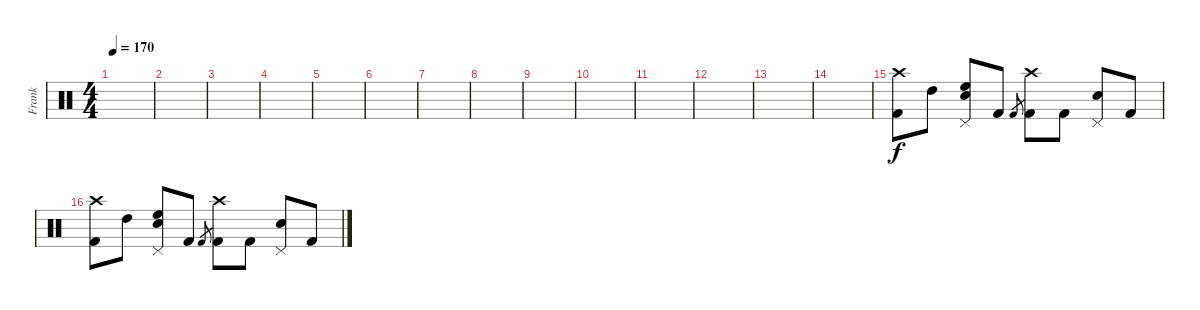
\track ("Frank" "Frank") {instrument percussion}
\staff {score}
\articulation defaults
\ts (4 4)
\tempo 170
\clef neutral
\ks c
|
|
|
|
|
|
|
|
|
|
|
|
|
|
("Crash high (hit)" "Kick (hit) 2").8 "High Tom (hit)".8 ("Pedal Hi-Hat (hit)" "High Floor Tom (hit)" "Snare (hit) 2").8 "Kick (hit) 2".8 "Kick (hit) 2".8{gr} ("Crash high (hit)" "Kick (hit) 2").8 "Kick (hit) 2".8 ("Pedal Hi-Hat (hit)" "Snare (hit) 2").8 "Kick (hit) 2".8 |
("Crash high (hit)" "Kick (hit) 2").8 "High Tom (hit)".8 ("Pedal Hi-Hat (hit)" "High Floor Tom (hit)" "Snare (hit) 2").8 "Kick (hit) 2".8 "Kick (hit) 2".8{gr} ("Crash high (hit)" "Kick (hit) 2").8 "Kick (hit) 2".8 ("Pedal Hi-Hat (hit)" "Snare (hit) 2").8 "Kick (hit) 2".8
